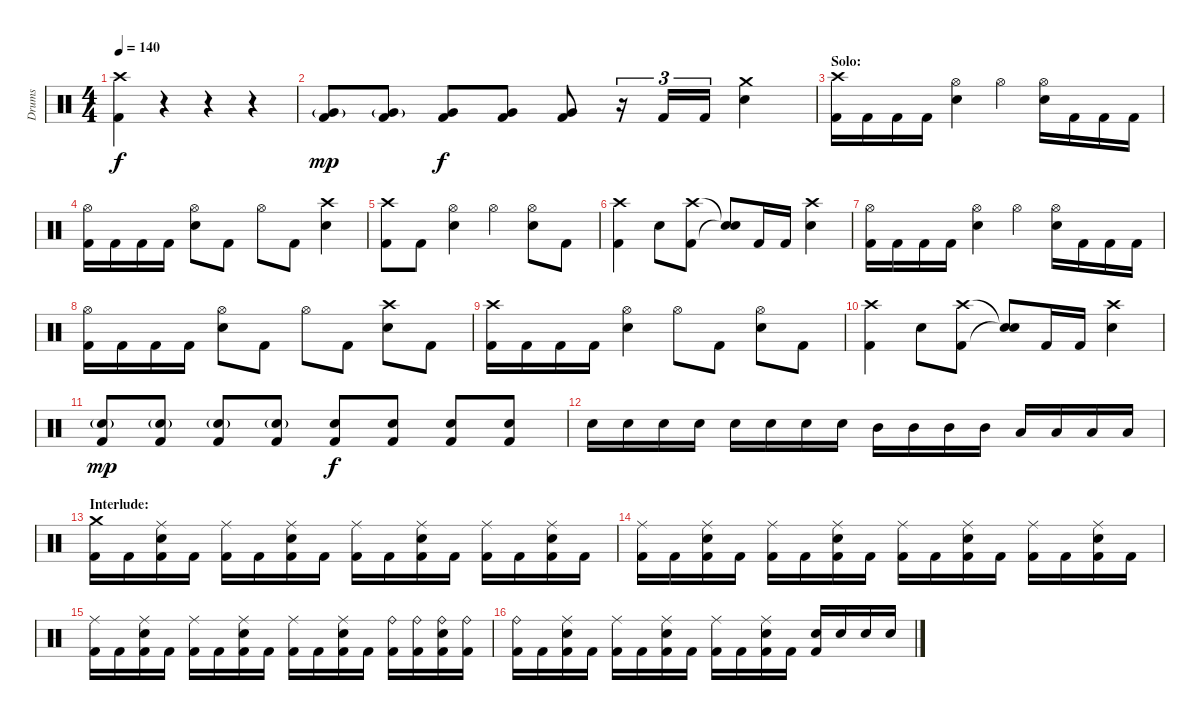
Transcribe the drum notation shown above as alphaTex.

\track ("Drums" "Drums") {instrument percussion}
\staff {score}
\articulation defaults
\ts (4 4)
\tempo 140
\clef neutral
\ks c
("Crash high (hit)" "Kick (hit) 2").4{dy f} r.4 r.4 r.4 |
("Very Low Tom (hit)"{g} "Kick (hit) 2").8{dy mp} ("Very Low Tom (hit)"{g} "Kick (hit) 2").8 ("Very Low Tom (hit)" "Kick (hit) 2").8{dy f} ("Very Low Tom (hit)" "Kick (hit) 2").8 ("Very Low Tom (hit)" "Kick (hit) 2").8 r.16{tu (3 2)} "Kick (hit) 2".16{tu (3 2)} "Kick (hit) 2".16{tu (3 2)} ("Crash medium (hit)" "Snare (hit) 2").4 |
\section ("" "Solo:")
("Crash high (hit)" "Kick (hit) 2").16 "Kick (hit) 2".16 "Kick (hit) 2".16 "Kick (hit) 2".16 ("Hi-Hat (open)" "Snare (hit) 2").4 "Hi-Hat (open)".4 ("Hi-Hat (open)" "Snare (hit) 2").16 "Kick (hit) 2".16 "Kick (hit) 2".16 "Kick (hit) 2".16 |
("Hi-Hat (open)" "Kick (hit) 2").16 "Kick (hit) 2".16 "Kick (hit) 2".16 "Kick (hit) 2".16 ("Hi-Hat (open)" "Snare (hit) 2").8 "Kick (hit) 2".8 "Hi-Hat (open)".8 "Kick (hit) 2".8 ("Crash high (hit)" "Snare (hit) 2").4 |
("Crash high (hit)" "Kick (hit) 2").8 "Kick (hit) 2".8 ("Hi-Hat (open)" "Snare (hit) 2").4 "Hi-Hat (open)".4 ("Hi-Hat (open)" "Snare (hit) 2").8 "Kick (hit) 2".8 |
("Crash high (hit)" "Kick (hit) 2").4 "Snare (hit) 2".8 ("Crash high (hit)" "Kick (hit) 2").8 ("Snare (hit)"{t} "Snare (hit)"{t}).8 "Kick (hit) 2".16 "Kick (hit) 2".16 ("Crash high (hit)" "Snare (hit) 2").4 |
("Hi-Hat (open)" "Kick (hit) 2").16 "Kick (hit) 2".16 "Kick (hit) 2".16 "Kick (hit) 2".16 ("Hi-Hat (open)" "Snare (hit) 2").4 "Hi-Hat (open)".4 ("Hi-Hat (open)" "Snare (hit) 2").16 "Kick (hit) 2".16 "Kick (hit) 2".16 "Kick (hit) 2".16 |
("Hi-Hat (open)" "Kick (hit) 2").16 "Kick (hit) 2".16 "Kick (hit) 2".16 "Kick (hit) 2".16 ("Hi-Hat (open)" "Snare (hit) 2").8 "Kick (hit) 2".8 "Hi-Hat (open)".8 "Kick (hit) 2".8 ("Crash high (hit)" "Snare (hit) 2").8 "Kick (hit) 2".8 |
("Crash high (hit)" "Kick (hit) 2").16 "Kick (hit) 2".16 "Kick (hit) 2".16 "Kick (hit) 2".16 ("Hi-Hat (open)" "Snare (hit) 2").4 "Hi-Hat (open)".8 "Kick (hit) 2".8 ("Hi-Hat (open)" "Snare (hit) 2").8 "Kick (hit) 2".8 |
("Crash high (hit)" "Kick (hit) 2").4 "Snare (hit) 2".8 ("Crash high (hit)" "Kick (hit) 2").8 ("Snare (hit)"{t} "Snare (hit)"{t}).8 "Kick (hit) 2".16 "Kick (hit) 2".16 ("Crash high (hit)" "Snare (hit) 2").4 |
("Snare (hit) 2"{g} "Kick (hit) 2").8{dy mp} ("Snare (hit) 2"{g} "Kick (hit) 2").8 ("Snare (hit) 2"{g} "Kick (hit) 2").8 ("Snare (hit) 2"{g} "Kick (hit) 2").8 ("Snare (hit) 2" "Kick (hit) 2").8{dy f} ("Snare (hit) 2" "Kick (hit) 2").8 ("Snare (hit) 2" "Kick (hit) 2").8 ("Snare (hit) 2" "Kick (hit) 2").8 |
"Snare (hit) 2".16 "Snare (hit) 2".16 "Snare (hit) 2".16 "Snare (hit) 2".16 "Snare (hit) 2".16 "Snare (hit) 2".16 "Snare (hit) 2".16 "Snare (hit) 2".16 "Mid Tom (hit)".16 "Mid Tom (hit)".16 "Mid Tom (hit)".16 "Mid Tom (hit)".16 "Low Tom (hit)".16 "Low Tom (hit)".16 "Low Tom (hit)".16 "Low Tom (hit)".16 |
\section ("" "Interlude:")
("Crash medium (hit)" "Kick (hit) 2").16 "Kick (hit) 2".16 ("Ride (middle)" "Snare (hit) 2" "Kick (hit) 2").16 "Kick (hit) 2".16 ("Ride (middle)" "Kick (hit) 2").16 "Kick (hit) 2".16 ("Ride (middle)" "Snare (hit) 2" "Kick (hit) 2").16 "Kick (hit) 2".16 ("Ride (middle)" "Kick (hit) 2").16 "Kick (hit) 2".16 ("Ride (middle)" "Snare (hit) 2" "Kick (hit) 2").16 "Kick (hit) 2".16 ("Ride (middle)" "Kick (hit) 2").16 "Kick (hit) 2".16 ("Ride (middle)" "Snare (hit) 2" "Kick (hit) 2").16 "Kick (hit) 2".16 |
("Ride (middle)" "Kick (hit) 2").16 "Kick (hit) 2".16 ("Ride (middle)" "Snare (hit) 2" "Kick (hit) 2").16 "Kick (hit) 2".16 ("Ride (middle)" "Kick (hit) 2").16 "Kick (hit) 2".16 ("Ride (middle)" "Snare (hit) 2" "Kick (hit) 2").16 "Kick (hit) 2".16 ("Ride (middle)" "Kick (hit) 2").16 "Kick (hit) 2".16 ("Ride (middle)" "Snare (hit) 2" "Kick (hit) 2").16 "Kick (hit) 2".16 ("Ride (middle)" "Kick (hit) 2").16 "Kick (hit) 2".16 ("Ride (middle)" "Snare (hit) 2" "Kick (hit) 2").16 "Kick (hit) 2".16 |
("Ride (middle)" "Kick (hit) 2").16 "Kick (hit) 2".16 ("Ride (middle)" "Snare (hit) 2" "Kick (hit) 2").16 "Kick (hit) 2".16 ("Ride (middle)" "Kick (hit) 2").16 "Kick (hit) 2".16 ("Ride (middle)" "Snare (hit) 2" "Kick (hit) 2").16 "Kick (hit) 2".16 ("Ride (middle)" "Kick (hit) 2").16 "Kick (hit) 2".16 ("Ride (middle)" "Snare (hit) 2" "Kick (hit) 2").16 "Kick (hit) 2".16 ("Ride (bell)" "Kick (hit) 2").16 ("Ride (bell)" "Kick (hit) 2").16 ("Ride (bell)" "Snare (hit) 2" "Kick (hit) 2").16 ("Ride (bell)" "Kick (hit) 2").16 |
("Ride (bell)" "Kick (hit) 2").16 "Kick (hit) 2".16 ("Ride (middle)" "Snare (hit) 2" "Kick (hit) 2").16 "Kick (hit) 2".16 ("Ride (middle)" "Kick (hit) 2").16 "Kick (hit) 2".16 ("Ride (middle)" "Snare (hit) 2" "Kick (hit) 2").16 "Kick (hit) 2".16 ("Ride (middle)" "Kick (hit) 2").16 "Kick (hit) 2".16 ("Ride (middle)" "Snare (hit) 2" "Kick (hit) 2").16 "Kick (hit) 2".16 ("Snare (hit) 2" "Kick (hit) 2").16 "Snare (hit) 2".16 "Snare (hit) 2".16 "Snare (hit) 2".16
